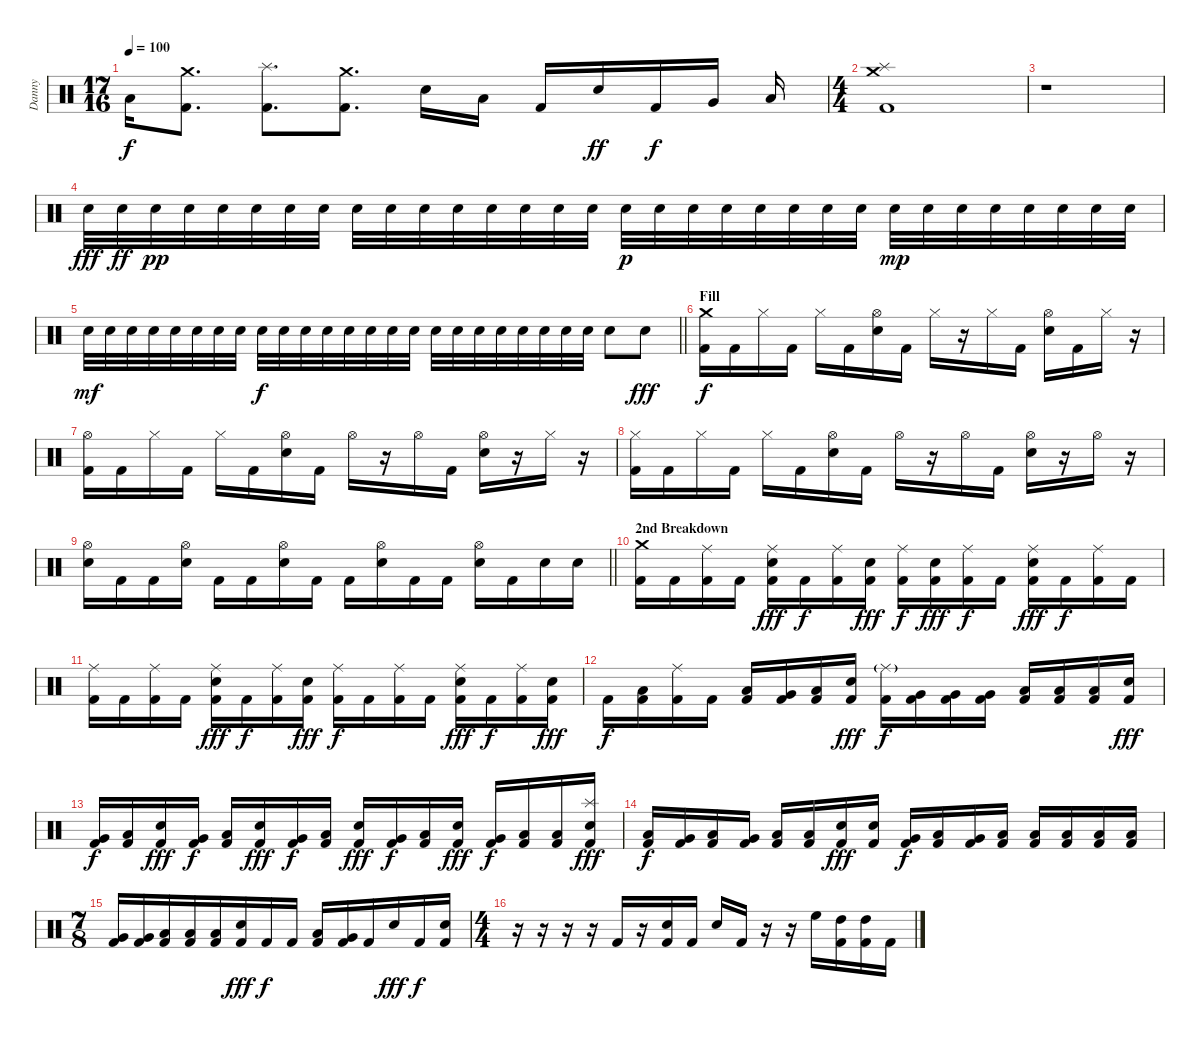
\track ("Danny" "Danny") {instrument percussion}
\staff {score}
\articulation defaults
\ts (17 16)
\tempo 100
\clef neutral
\ks c "Low Floor Tom (hit)".16{dy f}
("Crash medium (hit)" "Kick (hit) 2").8{d} ("Splash (hit)" "Kick (hit) 2").8{d} ("Crash medium (hit)" "Kick (hit) 2").8{d} "Electric Snare (hit)".16 "Low Tom (hit)".16 "Kick (hit) 2".16 "Electric Snare (hit)".16{dy ff} "Kick (hit) 2".16{dy f} "Very Low Tom (hit)".16 "Low Floor Tom (hit)".16 |
\ts (4 4)
("Crash medium (hit)" "Splash (hit)" "Kick (hit) 2").1 |
r.1 |
"Electric Snare (hit)".32{dy fff} "Electric Snare (hit)".32{dy ff} "Electric Snare (hit)".32{dy pp} "Electric Snare (hit)".32 "Electric Snare (hit)".32 "Electric Snare (hit)".32 "Electric Snare (hit)".32 "Electric Snare (hit)".32 "Electric Snare (hit)".32 "Electric Snare (hit)".32 "Electric Snare (hit)".32 "Electric Snare (hit)".32 "Electric Snare (hit)".32 "Electric Snare (hit)".32 "Electric Snare (hit)".32 "Electric Snare (hit)".32 "Electric Snare (hit)".32{dy p} "Electric Snare (hit)".32 "Electric Snare (hit)".32 "Electric Snare (hit)".32 "Electric Snare (hit)".32 "Electric Snare (hit)".32 "Electric Snare (hit)".32 "Electric Snare (hit)".32 "Electric Snare (hit)".32{dy mp} "Electric Snare (hit)".32 "Electric Snare (hit)".32 "Electric Snare (hit)".32 "Electric Snare (hit)".32 "Electric Snare (hit)".32 "Electric Snare (hit)".32 "Electric Snare (hit)".32 |
\barLineRight lightlight "Electric Snare (hit)".32{dy mf} "Electric Snare (hit)".32 "Electric Snare (hit)".32 "Electric Snare (hit)".32 "Electric Snare (hit)".32 "Electric Snare (hit)".32 "Electric Snare (hit)".32 "Electric Snare (hit)".32 "Electric Snare (hit)".32{dy f} "Electric Snare (hit)".32 "Electric Snare (hit)".32 "Electric Snare (hit)".32 "Electric Snare (hit)".32 "Electric Snare (hit)".32 "Electric Snare (hit)".32 "Electric Snare (hit)".32 "Electric Snare (hit)".32 "Electric Snare (hit)".32 "Electric Snare (hit)".32 "Electric Snare (hit)".32 "Electric Snare (hit)".32 "Electric Snare (hit)".32 "Electric Snare (hit)".32 "Electric Snare (hit)".32 "Electric Snare (hit)".8 "Electric Snare (hit)".8{dy fff}
|
\section ("" "Fill")
("Crash medium (hit)" "Kick (hit) 2").16{dy f} "Kick (hit) 2".16 "Hi-Hat (closed)".16 "Kick (hit) 2".16 "Hi-Hat (closed)".16 "Kick (hit) 2".16 ("Hi-Hat (open)" "Electric Snare (hit)").16 "Kick (hit) 2".16 "Hi-Hat (closed)".16 r.16 "Hi-Hat (closed)".16 "Kick (hit) 2".16 ("Hi-Hat (open)" "Electric Snare (hit)").16 "Kick (hit) 2".16 "Hi-Hat (closed)".16 r.16 |
("Hi-Hat (open)" "Kick (hit) 2").16 "Kick (hit) 2".16 "Hi-Hat (closed)".16 "Kick (hit) 2".16 "Hi-Hat (closed)".16 "Kick (hit) 2".16 ("Hi-Hat (open)" "Electric Snare (hit)").16 "Kick (hit) 2".16 "Hi-Hat (open)".16 r.16 "Hi-Hat (open)".16 "Kick (hit) 2".16 ("Hi-Hat (open)" "Electric Snare (hit)").16 r.16 "Hi-Hat (closed)".16 r.16 |
("Hi-Hat (closed)" "Kick (hit) 2").16 "Kick (hit) 2".16 "Hi-Hat (closed)".16 "Kick (hit) 2".16 "Hi-Hat (closed)".16 "Kick (hit) 2".16 ("Hi-Hat (open)" "Electric Snare (hit)").16 "Kick (hit) 2".16 "Hi-Hat (open)".16 r.16 "Hi-Hat (open)".16 "Kick (hit) 2".16 ("Hi-Hat (open)" "Electric Snare (hit)").16 r.16 "Hi-Hat (open)".16 r.16 |
\barLineRight lightlight
("Hi-Hat (open)" "Electric Snare (hit)").16 "Kick (hit) 2".16 "Kick (hit) 2".16 ("Hi-Hat (open)" "Electric Snare (hit)").16 "Kick (hit) 2".16 "Kick (hit) 2".16 ("Hi-Hat (open)" "Electric Snare (hit)").16 "Kick (hit) 2".16 "Kick (hit) 2".16 ("Hi-Hat (open)" "Electric Snare (hit)").16 "Kick (hit) 2".16 "Kick (hit) 2".16 ("Hi-Hat (open)" "Electric Snare (hit)").16 "Kick (hit) 2".16 "Electric Snare (hit)".16 "Electric Snare (hit)".16 |
\section ("" "2nd Breakdown")
("Crash medium (hit)" "Kick (hit) 2").16 "Kick (hit) 2".16 ("Ride (middle)" "Kick (hit) 2").16 "Kick (hit) 2".16 ("Ride (middle)" "Electric Snare (hit)" "Kick (hit) 2").16{dy fff} "Kick (hit) 2".16{dy f} ("Ride (middle)" "Kick (hit) 2").16 ("Electric Snare (hit)" "Kick (hit) 2").16{dy fff} ("Ride (middle)" "Kick (hit) 2").16{dy f} ("Electric Snare (hit)" "Kick (hit) 2").16{dy fff} ("Ride (middle)" "Kick (hit) 2").16{dy f} "Kick (hit) 2".16 ("Ride (middle)" "Electric Snare (hit)" "Kick (hit) 2").16{dy fff} "Kick (hit) 2".16{dy f} ("Ride (middle)" "Kick (hit) 2").16 "Kick (hit) 2".16 |
("Ride (middle)" "Kick (hit) 2").16 "Kick (hit) 2".16 ("Ride (middle)" "Kick (hit) 2").16 "Kick (hit) 2".16 ("Ride (middle)" "Electric Snare (hit)" "Kick (hit) 2").16{dy fff} "Kick (hit) 2".16{dy f} ("Ride (middle)" "Kick (hit) 2").16 ("Electric Snare (hit)" "Kick (hit) 2").16{dy fff} ("Ride (middle)" "Kick (hit) 2").16{dy f} "Kick (hit) 2".16 ("Ride (middle)" "Kick (hit) 2").16 "Kick (hit) 2".16 ("Ride (middle)" "Electric Snare (hit)" "Kick (hit) 2").16{dy fff} "Kick (hit) 2".16{dy f} ("Ride (middle)" "Kick (hit) 2").16 ("Electric Snare (hit)" "Kick (hit) 2").16{dy fff} |
"Kick (hit) 2".16{dy f} ("Low Tom (hit)" "Kick (hit) 2").16 ("Ride (middle)" "Kick (hit) 2").16 "Kick (hit) 2".16 ("Low Tom (hit)" "Kick (hit) 2").16 ("Very Low Tom (hit)" "Kick (hit) 2").16 ("Low Floor Tom (hit)" "Kick (hit) 2").16 ("Electric Snare (hit)" "Kick (hit) 2").16{dy fff} ("Ride (middle)"{g} "Kick (hit) 2").16{dy f} ("Very Low Tom (hit)" "Kick (hit) 2").16 ("Very Low Tom (hit)" "Kick (hit) 2").16 ("Very Low Tom (hit)" "Kick (hit) 2").16 ("Low Floor Tom (hit)" "Kick (hit) 2").16 ("Low Floor Tom (hit)" "Kick (hit) 2").16 ("Low Floor Tom (hit)" "Kick (hit) 2").16 ("Electric Snare (hit)" "Kick (hit) 2").16{dy fff} |
("Very Low Tom (hit)" "Kick (hit) 2").16{dy f} ("Low Floor Tom (hit)" "Kick (hit) 2").16 ("Electric Snare (hit)" "Kick (hit) 2").16{dy fff} ("Very Low Tom (hit)" "Kick (hit) 2").16{dy f} ("Low Floor Tom (hit)" "Kick (hit) 2").16 ("Electric Snare (hit)" "Kick (hit) 2").16{dy fff} ("Very Low Tom (hit)" "Kick (hit) 2").16{dy f} ("Low Floor Tom (hit)" "Kick (hit) 2").16 ("Electric Snare (hit)" "Kick (hit) 2").16{dy fff} ("Very Low Tom (hit)" "Kick (hit) 2").16{dy f} ("Low Floor Tom (hit)" "Kick (hit) 2").16 ("Electric Snare (hit)" "Kick (hit) 2").16{dy fff} ("Very Low Tom (hit)" "Kick (hit) 2").16{dy f} ("Low Floor Tom (hit)" "Kick (hit) 2").16 ("Low Floor Tom (hit)" "Kick (hit) 2").16 ("Splash (hit)" "Electric Snare (hit)" "Kick (hit) 2").16{dy fff} |
("Low Tom (hit)" "Kick (hit) 2").16{dy f} ("Very Low Tom (hit)" "Kick (hit) 2").16 ("Low Tom (hit)" "Kick (hit) 2").16 ("Very Low Tom (hit)" "Kick (hit) 2").16 ("Low Floor Tom (hit)" "Kick (hit) 2").16 ("Low Floor Tom (hit)" "Kick (hit) 2").16 ("Electric Snare (hit)" "Kick (hit) 2").16{dy fff} ("Electric Snare (hit)" "Kick (hit) 2").16 ("Very Low Tom (hit)" "Kick (hit) 2").16{dy f} ("Low Floor Tom (hit)" "Kick (hit) 2").16 ("Very Low Tom (hit)" "Kick (hit) 2").16 ("Low Floor Tom (hit)" "Kick (hit) 2").16 ("Low Floor Tom (hit)" "Kick (hit) 2").16 ("Low Floor Tom (hit)" "Kick (hit) 2").16 ("Low Tom (hit)" "Kick (hit) 2").16 ("Low Tom (hit)" "Kick (hit) 2").16 |
\ts (7 8)
("Very Low Tom (hit)" "Kick (hit) 2").16 ("Very Low Tom (hit)" "Kick (hit) 2").16 ("Low Floor Tom (hit)" "Kick (hit) 2").16 ("Low Floor Tom (hit)" "Kick (hit) 2").16 ("Low Floor Tom (hit)" "Kick (hit) 2").16 ("Electric Snare (hit)" "Kick (hit) 2").16{dy fff} "Kick (hit) 2".16{dy f} "Kick (hit) 2".16 ("Low Tom (hit)" "Kick (hit) 2").16 ("Very Low Tom (hit)" "Kick (hit) 2").16 "Kick (hit) 2".16 "Electric Snare (hit)".16{dy fff} "Kick (hit) 2".16{dy f} ("Electric Snare (hit)" "Kick (hit) 2").16 |
\ts (4 4)
r.16 r.16 r.16 r.16 "Kick (hit) 2".16 r.16 ("Electric Snare (hit)" "Kick (hit) 2").16 "Kick (hit) 2".16 "Electric Snare (hit)".16 "Kick (hit) 2".16 r.16 r.16 "High Floor Tom (hit)".16 ("High Tom (hit)" "Kick (hit) 2").16 ("High Tom (hit)" "Kick (hit) 2").16 "Kick (hit) 2".16
